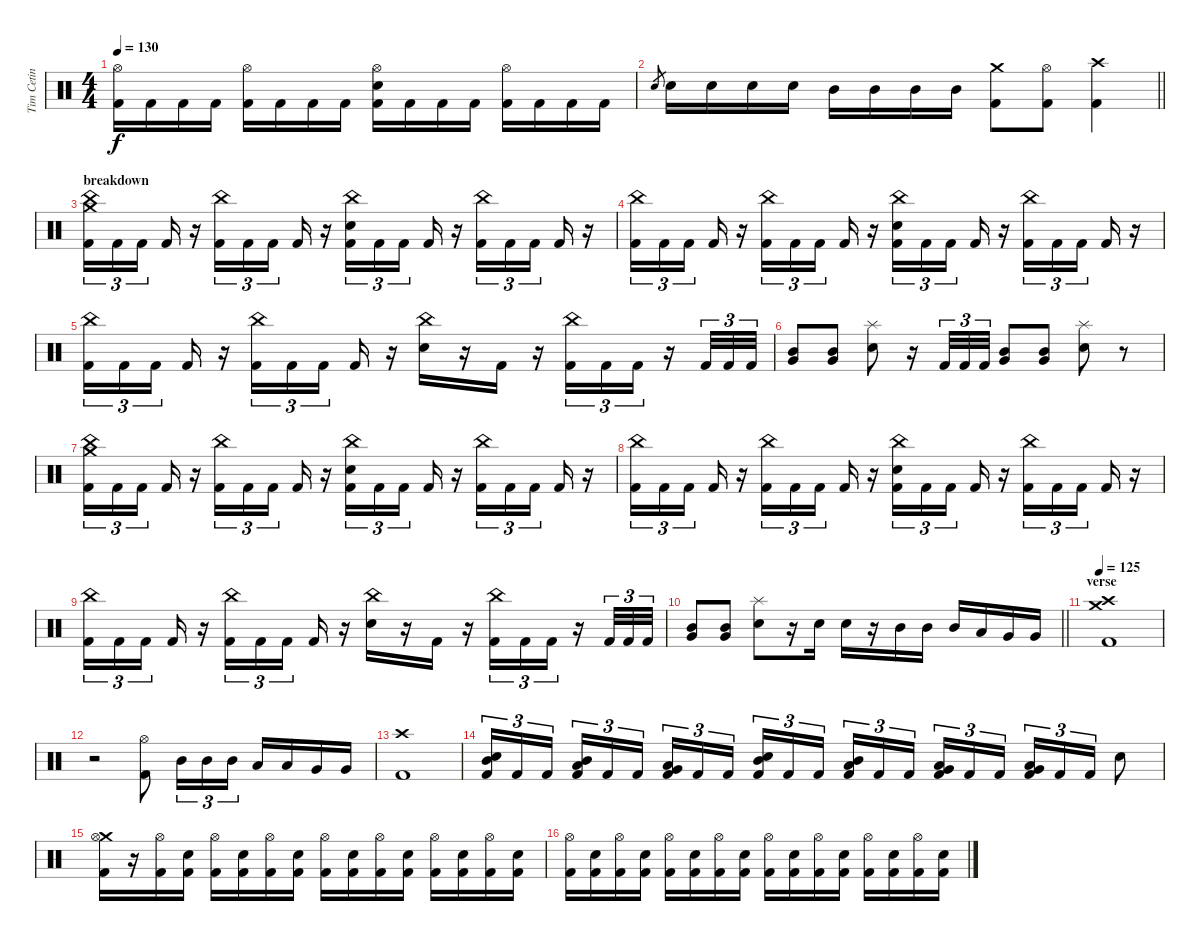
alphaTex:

\track ("Tim Cetin" "Tim Cetin") {instrument percussion}
\staff {score}
\articulation defaults
\ts (4 4)
\tempo 130
\clef neutral
\ks c
("Hi-Hat (open)" "Kick (hit) 2").16{dy f} "Kick (hit) 2".16 "Kick (hit) 2".16 "Kick (hit) 2".16 ("Hi-Hat (open)" "Kick (hit) 2").16 "Kick (hit) 2".16 "Kick (hit) 2".16 "Kick (hit) 2".16 ("Hi-Hat (open)" "Electric Snare (hit)" "Kick (hit) 2").16 "Kick (hit) 2".16 "Kick (hit) 2".16 "Kick (hit) 2".16 ("Hi-Hat (open)" "Kick (hit) 2").16 "Kick (hit) 2".16 "Kick (hit) 2".16 "Kick (hit) 2".16 |
\barLineRight lightlight "Electric Snare (hit)".8{gr} "Electric Snare (hit)".16 "Electric Snare (hit)".16 "Electric Snare (hit)".16 "Electric Snare (hit)".16 "Mid Tom (hit)".16 "Mid Tom (hit)".16 "Mid Tom (hit)".16 "Mid Tom (hit)".16
("Crash medium (hit)" "Kick (hit) 2").8 ("Hi-Hat (open)" "Kick (hit) 2").8 ("Crash high (hit)" "Kick (hit) 2").4 |
\section ("" "breakdown")
("Crash medium (hit)" "China (hit)" "Kick (hit) 2").16{tu (3 2)} "Kick (hit) 2".16{tu (3 2)} "Kick (hit) 2".16{tu (3 2) beam splitsecondary} "Kick (hit) 2".16 r.16 ("China (hit)" "Kick (hit) 2").16{tu (3 2)} "Kick (hit) 2".16{tu (3 2)} "Kick (hit) 2".16{tu (3 2) beam splitsecondary} "Kick (hit) 2".16 r.16 ("China (hit)" "Electric Snare (hit)" "Kick (hit) 2").16{tu (3 2)} "Kick (hit) 2".16{tu (3 2)} "Kick (hit) 2".16{tu (3 2) beam splitsecondary} "Kick (hit) 2".16 r.16 ("China (hit)" "Kick (hit) 2").16{tu (3 2)} "Kick (hit) 2".16{tu (3 2)} "Kick (hit) 2".16{tu (3 2) beam splitsecondary} "Kick (hit) 2".16 r.16 |
("China (hit)" "Kick (hit) 2").16{tu (3 2)} "Kick (hit) 2".16{tu (3 2)} "Kick (hit) 2".16{tu (3 2) beam splitsecondary} "Kick (hit) 2".16 r.16 ("China (hit)" "Kick (hit) 2").16{tu (3 2)} "Kick (hit) 2".16{tu (3 2)} "Kick (hit) 2".16{tu (3 2) beam splitsecondary} "Kick (hit) 2".16 r.16 ("China (hit)" "Electric Snare (hit)" "Kick (hit) 2").16{tu (3 2)} "Kick (hit) 2".16{tu (3 2)} "Kick (hit) 2".16{tu (3 2) beam splitsecondary} "Kick (hit) 2".16 r.16 ("China (hit)" "Kick (hit) 2").16{tu (3 2)} "Kick (hit) 2".16{tu (3 2)} "Kick (hit) 2".16{tu (3 2) beam splitsecondary} "Kick (hit) 2".16 r.16 |
("China (hit)" "Kick (hit) 2").16{tu (3 2)} "Kick (hit) 2".16{tu (3 2)} "Kick (hit) 2".16{tu (3 2) beam splitsecondary} "Kick (hit) 2".16 r.16 ("China (hit)" "Kick (hit) 2").16{tu (3 2)} "Kick (hit) 2".16{tu (3 2)} "Kick (hit) 2".16{tu (3 2) beam splitsecondary} "Kick (hit) 2".16 r.16 ("China (hit)" "Electric Snare (hit)").16 r.16 "Kick (hit) 2".16 r.16 ("China (hit)" "Kick (hit) 2").16{tu (3 2)} "Kick (hit) 2".16{tu (3 2)} "Kick (hit) 2".16{tu (3 2)} r.16 "Kick (hit) 2".32{tu (3 2)} "Kick (hit) 2".32{tu (3 2)} "Kick (hit) 2".32{tu (3 2)} |
("Mid Tom (hit)" "Very Low Tom (hit)").8 ("Mid Tom (hit)" "Very Low Tom (hit)").8 ("Splash (hit)" "Electric Snare (hit)").8 r.16 "Kick (hit) 2".32{tu (3 2)} "Kick (hit) 2".32{tu (3 2)} "Kick (hit) 2".32{tu (3 2)} ("Mid Tom (hit)" "Very Low Tom (hit)").8 ("Mid Tom (hit)" "Very Low Tom (hit)").8 ("Splash (hit)" "Electric Snare (hit)").8 r.8 |
("Crash medium (hit)" "China (hit)" "Kick (hit) 2").16{tu (3 2)} "Kick (hit) 2".16{tu (3 2)} "Kick (hit) 2".16{tu (3 2) beam splitsecondary} "Kick (hit) 2".16 r.16 ("China (hit)" "Kick (hit) 2").16{tu (3 2)} "Kick (hit) 2".16{tu (3 2)} "Kick (hit) 2".16{tu (3 2) beam splitsecondary} "Kick (hit) 2".16 r.16 ("China (hit)" "Electric Snare (hit)" "Kick (hit) 2").16{tu (3 2)} "Kick (hit) 2".16{tu (3 2)} "Kick (hit) 2".16{tu (3 2) beam splitsecondary} "Kick (hit) 2".16 r.16 ("China (hit)" "Kick (hit) 2").16{tu (3 2)} "Kick (hit) 2".16{tu (3 2)} "Kick (hit) 2".16{tu (3 2) beam splitsecondary} "Kick (hit) 2".16 r.16 |
("China (hit)" "Kick (hit) 2").16{tu (3 2)} "Kick (hit) 2".16{tu (3 2)} "Kick (hit) 2".16{tu (3 2) beam splitsecondary} "Kick (hit) 2".16 r.16 ("China (hit)" "Kick (hit) 2").16{tu (3 2)} "Kick (hit) 2".16{tu (3 2)} "Kick (hit) 2".16{tu (3 2) beam splitsecondary} "Kick (hit) 2".16 r.16 ("China (hit)" "Electric Snare (hit)" "Kick (hit) 2").16{tu (3 2)} "Kick (hit) 2".16{tu (3 2)} "Kick (hit) 2".16{tu (3 2) beam splitsecondary} "Kick (hit) 2".16 r.16 ("China (hit)" "Kick (hit) 2").16{tu (3 2)} "Kick (hit) 2".16{tu (3 2)} "Kick (hit) 2".16{tu (3 2) beam splitsecondary} "Kick (hit) 2".16 r.16 |
("China (hit)" "Kick (hit) 2").16{tu (3 2)} "Kick (hit) 2".16{tu (3 2)} "Kick (hit) 2".16{tu (3 2) beam splitsecondary} "Kick (hit) 2".16 r.16 ("China (hit)" "Kick (hit) 2").16{tu (3 2)} "Kick (hit) 2".16{tu (3 2)} "Kick (hit) 2".16{tu (3 2) beam splitsecondary} "Kick (hit) 2".16 r.16 ("China (hit)" "Electric Snare (hit)").16 r.16 "Kick (hit) 2".16 r.16 ("China (hit)" "Kick (hit) 2").16{tu (3 2)} "Kick (hit) 2".16{tu (3 2)} "Kick (hit) 2".16{tu (3 2)} r.16 "Kick (hit) 2".32{tu (3 2)} "Kick (hit) 2".32{tu (3 2)} "Kick (hit) 2".32{tu (3 2)} |
\barLineRight lightlight
("Mid Tom (hit)" "Very Low Tom (hit)").8 ("Mid Tom (hit)" "Very Low Tom (hit)").8 ("Splash (hit)" "Electric Snare (hit)").8 r.16 "Electric Snare (hit)".16 "Electric Snare (hit)".16 r.16 "Mid Tom (hit)".16 "Mid Tom (hit)".16 "Mid Tom (hit)".16 "Low Tom (hit)".16 "Very Low Tom (hit)".16 "Very Low Tom (hit)".16 |
\section ("" "verse")
\tempo 125
("Crash medium (hit)" "Crash high (hit)" "Kick (hit) 2").1 |
r.2 ("Hi-Hat (open)" "Kick (hit) 2").8 "Mid Tom (hit)".16{tu (3 2)} "Mid Tom (hit)".16{tu (3 2)} "Mid Tom (hit)".16{tu (3 2)} "Low Tom (hit)".16 "Low Tom (hit)".16 "Very Low Tom (hit)".16 "Very Low Tom (hit)".16 |
("Crash high (hit)" "Kick (hit) 2").1 |
("Mid Tom (hit)" "Electric Snare (hit)" "Kick (hit) 2").16{tu (3 2)} "Kick (hit) 2".16{tu (3 2)} "Kick (hit) 2".16{tu (3 2) beam splitsecondary} ("Low Tom (hit)" "Mid Tom (hit)" "Kick (hit) 2").16{tu (3 2)} "Kick (hit) 2".16{tu (3 2)} "Kick (hit) 2".16{tu (3 2)} ("Very Low Tom (hit)" "Low Tom (hit)" "Kick (hit) 2").16{tu (3 2)} "Kick (hit) 2".16{tu (3 2)} "Kick (hit) 2".16{tu (3 2) beam splitsecondary} ("Mid Tom (hit)" "Snare (hit) 2" "Kick (hit) 2").16{tu (3 2)} "Kick (hit) 2".16{tu (3 2)} "Kick (hit) 2".16{tu (3 2)} ("Mid Tom (hit)" "Low Tom (hit)" "Kick (hit) 2").16{tu (3 2)} "Kick (hit) 2".16{tu (3 2)} "Kick (hit) 2".16{tu (3 2) beam splitsecondary} ("Very Low Tom (hit)" "Low Tom (hit)" "Kick (hit) 2").16{tu (3 2)} "Kick (hit) 2".16{tu (3 2)} "Kick (hit) 2".16{tu (3 2)} ("Low Floor Tom (hit)" "Very Low Tom (hit)" "Kick (hit) 2").16{tu (3 2)} "Kick (hit) 2".16{tu (3 2)} "Kick (hit) 2".16{tu (3 2)} "Electric Snare (hit)".8 |
("Crash medium (hit)" "Hi-Hat (open)" "Kick (hit) 2").16 r.16 ("Hi-Hat (open)" "Kick (hit) 2").16 ("Electric Snare (hit)" "Kick (hit) 2").16 ("Hi-Hat (open)" "Kick (hit) 2").16 ("Electric Snare (hit)" "Kick (hit) 2").16 ("Hi-Hat (open)" "Kick (hit) 2").16 ("Electric Snare (hit)" "Kick (hit) 2").16 ("Hi-Hat (open)" "Kick (hit) 2").16 ("Electric Snare (hit)" "Kick (hit) 2").16 ("Hi-Hat (open)" "Kick (hit) 2").16 ("Electric Snare (hit)" "Kick (hit) 2").16 ("Hi-Hat (open)" "Kick (hit) 2").16 ("Electric Snare (hit)" "Kick (hit) 2").16 ("Hi-Hat (open)" "Kick (hit) 2").16 ("Electric Snare (hit)" "Kick (hit) 2").16 |
("Hi-Hat (open)" "Kick (hit) 2").16 ("Electric Snare (hit)" "Kick (hit) 2").16 ("Hi-Hat (open)" "Kick (hit) 2").16 ("Electric Snare (hit)" "Kick (hit) 2").16 ("Hi-Hat (open)" "Kick (hit) 2").16 ("Electric Snare (hit)" "Kick (hit) 2").16 ("Hi-Hat (open)" "Kick (hit) 2").16 ("Electric Snare (hit)" "Kick (hit) 2").16 ("Hi-Hat (open)" "Kick (hit) 2").16 ("Electric Snare (hit)" "Kick (hit) 2").16 ("Hi-Hat (open)" "Kick (hit) 2").16 ("Electric Snare (hit)" "Kick (hit) 2").16 ("Hi-Hat (open)" "Kick (hit) 2").16 ("Electric Snare (hit)" "Kick (hit) 2").16 ("Hi-Hat (open)" "Kick (hit) 2").16 ("Electric Snare (hit)" "Kick (hit) 2").16
